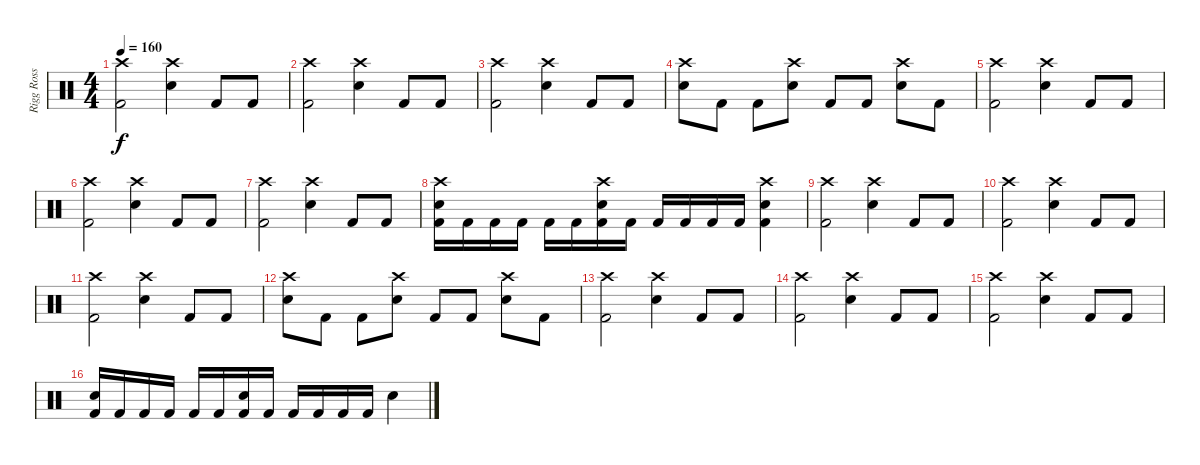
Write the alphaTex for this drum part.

\track ("Rigg Ross" "Rigg Ross") {instrument percussion}
\staff {score}
\articulation defaults
\ts (4 4)
\tempo 160
\clef neutral
\ks c
("Crash high (hit)" "Kick (hit) 2").2{dy f} ("Crash high (hit)" "Electric Snare (hit)").4 "Kick (hit) 2".8 "Kick (hit) 2".8 |
("Crash high (hit)" "Kick (hit) 2").2 ("Crash high (hit)" "Electric Snare (hit)").4 "Kick (hit) 2".8 "Kick (hit) 2".8 |
("Crash high (hit)" "Kick (hit) 2").2 ("Crash high (hit)" "Electric Snare (hit)").4 "Kick (hit) 2".8 "Kick (hit) 2".8 |
("Crash high (hit)" "Electric Snare (hit)").8 "Kick (hit) 2".8 "Kick (hit) 2".8 ("Crash high (hit)" "Electric Snare (hit)").8 "Kick (hit) 2".8 "Kick (hit) 2".8 ("Crash high (hit)" "Electric Snare (hit)").8 "Kick (hit) 2".8 |
("Crash high (hit)" "Kick (hit) 2").2 ("Crash high (hit)" "Electric Snare (hit)").4 "Kick (hit) 2".8 "Kick (hit) 2".8 |
("Crash high (hit)" "Kick (hit) 2").2 ("Crash high (hit)" "Electric Snare (hit)").4 "Kick (hit) 2".8 "Kick (hit) 2".8 |
("Crash high (hit)" "Kick (hit) 2").2 ("Crash high (hit)" "Electric Snare (hit)").4 "Kick (hit) 2".8 "Kick (hit) 2".8 |
("Crash high (hit)" "Electric Snare (hit)" "Kick (hit) 2").16 "Kick (hit) 2".16 "Kick (hit) 2".16 "Kick (hit) 2".16 "Kick (hit) 2".16 "Kick (hit) 2".16 ("Crash high (hit)" "Electric Snare (hit)" "Kick (hit) 2").16 "Kick (hit) 2".16 "Kick (hit) 2".16 "Kick (hit) 2".16 "Kick (hit) 2".16 "Kick (hit) 2".16 ("Crash high (hit)" "Electric Snare (hit)" "Kick (hit) 2").4 |
("Crash high (hit)" "Kick (hit) 2").2 ("Crash high (hit)" "Electric Snare (hit)").4 "Kick (hit) 2".8 "Kick (hit) 2".8 |
("Crash high (hit)" "Kick (hit) 2").2 ("Crash high (hit)" "Electric Snare (hit)").4 "Kick (hit) 2".8 "Kick (hit) 2".8 |
("Crash high (hit)" "Kick (hit) 2").2 ("Crash high (hit)" "Electric Snare (hit)").4 "Kick (hit) 2".8 "Kick (hit) 2".8 |
("Crash high (hit)" "Electric Snare (hit)").8 "Kick (hit) 2".8 "Kick (hit) 2".8 ("Crash high (hit)" "Electric Snare (hit)").8 "Kick (hit) 2".8 "Kick (hit) 2".8 ("Crash high (hit)" "Electric Snare (hit)").8 "Kick (hit) 2".8 |
("Crash high (hit)" "Kick (hit) 2").2 ("Crash high (hit)" "Electric Snare (hit)").4 "Kick (hit) 2".8 "Kick (hit) 2".8 |
("Crash high (hit)" "Kick (hit) 2").2 ("Crash high (hit)" "Electric Snare (hit)").4 "Kick (hit) 2".8 "Kick (hit) 2".8 |
("Crash high (hit)" "Kick (hit) 2").2 ("Crash high (hit)" "Electric Snare (hit)").4 "Kick (hit) 2".8 "Kick (hit) 2".8 |
("Electric Snare (hit)" "Kick (hit) 2").16 "Kick (hit) 2".16 "Kick (hit) 2".16 "Kick (hit) 2".16 "Kick (hit) 2".16 "Kick (hit) 2".16 ("Electric Snare (hit)" "Kick (hit) 2").16 "Kick (hit) 2".16 "Kick (hit) 2".16 "Kick (hit) 2".16 "Kick (hit) 2".16 "Kick (hit) 2".16 "Electric Snare (hit)".4
